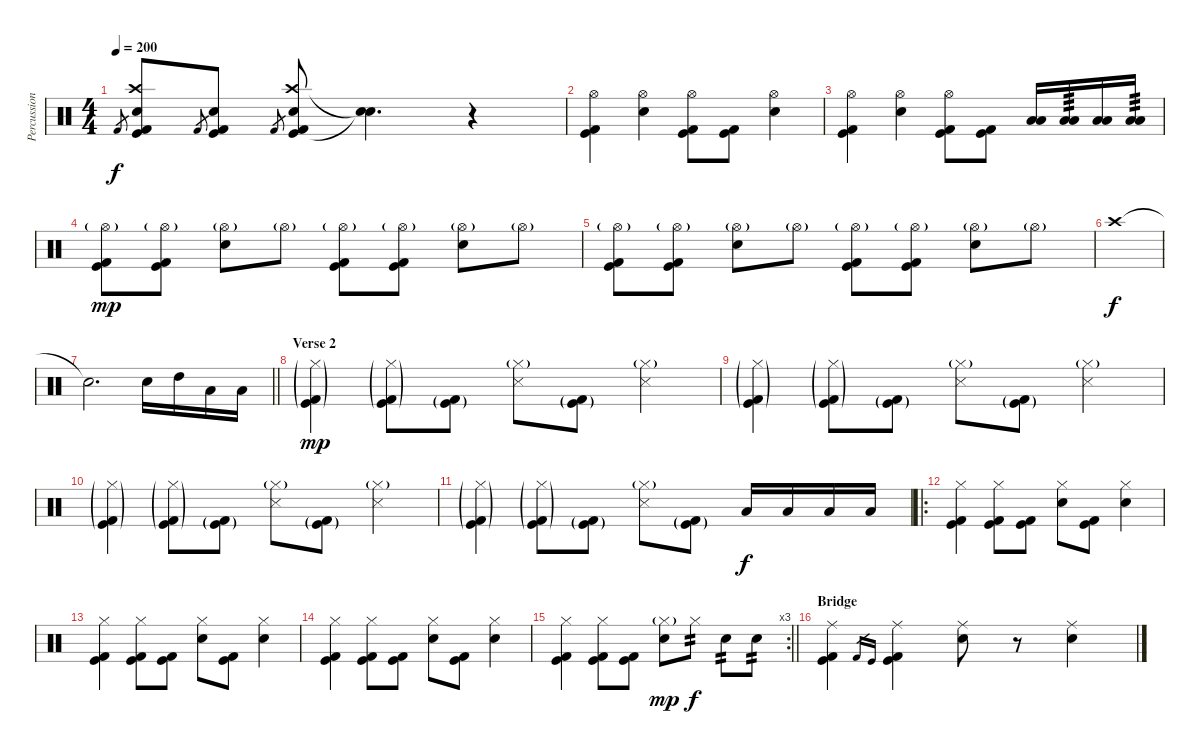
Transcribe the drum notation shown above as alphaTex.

\track ("Percussion" "Percussion") {instrument percussion}
\staff {score}
\articulation defaults
\ts (4 4)
\tempo 200
\clef neutral
\ks c "Kick (hit) 2".8{gr dy f}
("Crash high (hit)" "Kick (hit)" "Snare (hit) 2" "Kick (hit) 2").8 "Kick (hit) 2".8{gr} ("Kick (hit)" "Snare (hit) 2" "Kick (hit) 2").8 "Kick (hit) 2".8{gr} ("Crash high (hit)" "Kick (hit)" "Snare (hit) 2" "Kick (hit) 2").8 ("Snare (hit)"{t} "Snare (hit)"{t}).4{d} r.4 |
("Hi-Hat (open)" "Kick (hit)" "Kick (hit) 2").4 ("Hi-Hat (open)" "Snare (hit) 2").4 ("Hi-Hat (open)" "Kick (hit)" "Kick (hit) 2").8 ("Kick (hit)" "Kick (hit) 2").8 ("Hi-Hat (open)" "Snare (hit) 2").4 |
("Hi-Hat (open)" "Kick (hit)" "Kick (hit) 2").4 ("Hi-Hat (open)" "Snare (hit) 2").4 ("Hi-Hat (open)" "Kick (hit)" "Kick (hit) 2").8 ("Kick (hit)" "Kick (hit) 2").8 ("Low Tom (hit)" "Low Floor Tom (hit)").16 ("Low Tom (hit)" "Low Floor Tom (hit)").16{tp 3} ("Low Tom (hit)" "Low Floor Tom (hit)").16 ("Low Tom (hit)" "Low Floor Tom (hit)").16{tp 3} |
("Hi-Hat (open)"{g} "Kick (hit)" "Kick (hit) 2").8{dy mp} ("Hi-Hat (open)"{g} "Kick (hit)" "Kick (hit) 2").8 ("Hi-Hat (open)"{g} "Snare (hit) 2").8 "Hi-Hat (open)"{g}.8 ("Hi-Hat (open)"{g} "Kick (hit)" "Kick (hit) 2").8 ("Hi-Hat (open)"{g} "Kick (hit)" "Kick (hit) 2").8 ("Hi-Hat (open)"{g} "Snare (hit) 2").8 "Hi-Hat (open)"{g}.8 |
("Hi-Hat (open)"{g} "Kick (hit)" "Kick (hit) 2").8 ("Hi-Hat (open)"{g} "Kick (hit)" "Kick (hit) 2").8 ("Hi-Hat (open)"{g} "Snare (hit) 2").8 "Hi-Hat (open)"{g}.8 ("Hi-Hat (open)"{g} "Kick (hit)" "Kick (hit) 2").8 ("Hi-Hat (open)"{g} "Kick (hit)" "Kick (hit) 2").8 ("Hi-Hat (open)"{g} "Snare (hit) 2").8 "Hi-Hat (open)"{g}.8 |
"Crash high (hit)".1{dy f} |
\barLineRight lightlight "Snare (hit)"{t}.2{d} "Snare (hit) 2".16 "High Tom (hit)".16 "Low Tom (hit)".16 "Low Floor Tom (hit)".16
|
\section ("" "Verse 2")
("Hi-Hat (closed)"{g} "Kick (hit)"{g} "Kick (hit) 2"{g}).4{dy mp volume 9} ("Hi-Hat (closed)"{g} "Kick (hit)"{g} "Kick (hit) 2"{g}).8 ("Kick (hit)"{g} "Kick (hit) 2"{g}).8 ("Hi-Hat (closed)"{g} "Snare (side stick) 3").8 ("Kick (hit)"{g} "Kick (hit) 2"{g}).8 ("Hi-Hat (closed)"{g} "Snare (side stick) 3").4 |
("Hi-Hat (closed)"{g} "Kick (hit)"{g} "Kick (hit) 2"{g}).4 ("Hi-Hat (closed)"{g} "Kick (hit)"{g} "Kick (hit) 2"{g}).8 ("Kick (hit)"{g} "Kick (hit) 2"{g}).8 ("Hi-Hat (closed)"{g} "Snare (side stick) 3").8 ("Kick (hit)"{g} "Kick (hit) 2"{g}).8 ("Hi-Hat (closed)"{g} "Snare (side stick) 3").4 |
("Hi-Hat (closed)"{g} "Kick (hit)"{g} "Kick (hit) 2"{g}).4 ("Hi-Hat (closed)"{g} "Kick (hit)"{g} "Kick (hit) 2"{g}).8 ("Kick (hit)"{g} "Kick (hit) 2"{g}).8 ("Hi-Hat (closed)"{g} "Snare (side stick) 3").8 ("Kick (hit)"{g} "Kick (hit) 2"{g}).8 ("Hi-Hat (closed)"{g} "Snare (side stick) 3").4 |
("Hi-Hat (closed)"{g} "Kick (hit)"{g} "Kick (hit) 2"{g}).4 ("Hi-Hat (closed)"{g} "Kick (hit)"{g} "Kick (hit) 2"{g}).8 ("Kick (hit)"{g} "Kick (hit) 2"{g}).8 ("Hi-Hat (closed)"{g} "Snare (side stick) 3").8 ("Kick (hit)"{g} "Kick (hit) 2"{g}).8 "Low Floor Tom (hit)".16{dy f volume 16} "Low Floor Tom (hit)".16 "Low Floor Tom (hit)".16 "Low Floor Tom (hit)".16 |
\ro
("Hi-Hat (closed)" "Kick (hit)" "Kick (hit) 2").4 ("Hi-Hat (closed)" "Kick (hit)" "Kick (hit) 2").8 ("Kick (hit)" "Kick (hit) 2").8 ("Hi-Hat (closed)" "Snare (hit) 2").8 ("Kick (hit)" "Kick (hit) 2").8 ("Hi-Hat (closed)" "Snare (hit) 2").4 |
("Hi-Hat (closed)" "Kick (hit)" "Kick (hit) 2").4 ("Hi-Hat (closed)" "Kick (hit)" "Kick (hit) 2").8 ("Kick (hit)" "Kick (hit) 2").8 ("Hi-Hat (closed)" "Snare (hit) 2").8 ("Kick (hit)" "Kick (hit) 2").8 ("Hi-Hat (closed)" "Snare (hit) 2").4 |
("Hi-Hat (closed)" "Kick (hit)" "Kick (hit) 2").4 ("Hi-Hat (closed)" "Kick (hit)" "Kick (hit) 2").8 ("Kick (hit)" "Kick (hit) 2").8 ("Hi-Hat (closed)" "Snare (hit) 2").8 ("Kick (hit)" "Kick (hit) 2").8 ("Hi-Hat (closed)" "Snare (hit) 2").4 |
\rc 3
\barLineRight lightlight
("Hi-Hat (closed)" "Kick (hit)" "Kick (hit) 2").4 ("Hi-Hat (closed)" "Kick (hit)" "Kick (hit) 2").8 ("Kick (hit)" "Kick (hit) 2").8 ("Hi-Hat (closed)"{g} "Snare (hit) 2").8{dy mp} "Hi-Hat (closed)".8{tp 2 dy f} "Snare (hit) 2".8{tp 2} "Snare (hit) 2".8{tp 2} |
\section ("" "Bridge")
("Ride (middle)" "Kick (hit) 2" "Kick (hit)").4{volume 9} "Kick (hit) 2".16{gr} "Kick (hit)".16{gr} ("Ride (middle)" "Kick (hit) 2" "Kick (hit)").4 ("Ride (middle)" "Snare (hit) 2").8 r.8 ("Ride (middle)" "Snare (hit) 2").4
